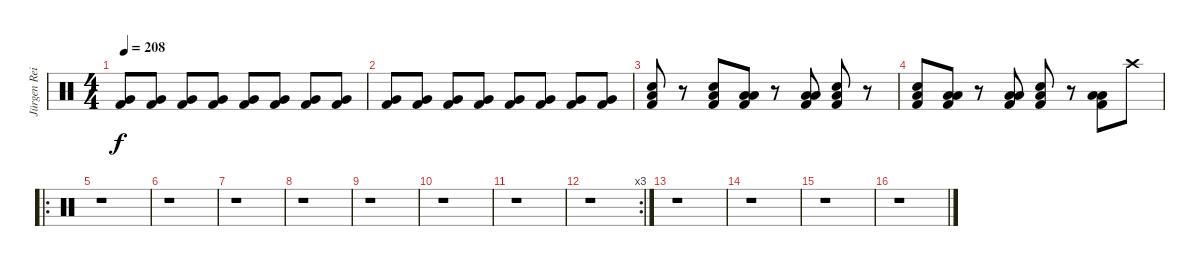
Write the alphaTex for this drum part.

\track ("Jürgen Reil" "Jürgen Rei") {instrument percussion}
\staff {score}
\articulation defaults
\ts (4 4)
\tempo 208
\clef neutral
\ks c
("Kick (hit) 2" "Very Low Tom (hit)").8{dy f} ("Kick (hit) 2" "Very Low Tom (hit)").8 ("Kick (hit) 2" "Very Low Tom (hit)").8 ("Kick (hit) 2" "Very Low Tom (hit)").8 ("Kick (hit) 2" "Very Low Tom (hit)").8 ("Kick (hit) 2" "Very Low Tom (hit)").8 ("Kick (hit) 2" "Very Low Tom (hit)").8 ("Kick (hit) 2" "Very Low Tom (hit)").8 |
("Kick (hit) 2" "Very Low Tom (hit)").8 ("Kick (hit) 2" "Very Low Tom (hit)").8 ("Kick (hit) 2" "Very Low Tom (hit)").8 ("Kick (hit) 2" "Very Low Tom (hit)").8 ("Kick (hit) 2" "Very Low Tom (hit)").8 ("Kick (hit) 2" "Very Low Tom (hit)").8 ("Kick (hit) 2" "Very Low Tom (hit)").8 ("Kick (hit) 2" "Very Low Tom (hit)").8 |
("Low Tom (hit)" "Kick (hit) 2" "Electric Snare (hit)").8 r.8 ("Low Tom (hit)" "Kick (hit) 2" "Electric Snare (hit)").8 ("Low Tom (hit)" "Kick (hit) 2" "Low Floor Tom (hit)").8 r.8 ("Low Tom (hit)" "Kick (hit) 2" "Low Floor Tom (hit)").8 ("Low Tom (hit)" "Kick (hit) 2" "Electric Snare (hit)").8 r.8 |
("Low Tom (hit)" "Kick (hit) 2" "Electric Snare (hit)").8 ("Low Tom (hit)" "Kick (hit) 2" "Low Floor Tom (hit)").8 r.8 ("Low Tom (hit)" "Kick (hit) 2" "Low Floor Tom (hit)").8 ("Low Tom (hit)" "Kick (hit) 2" "Electric Snare (hit)").8 r.8 ("Low Tom (hit)" "Kick (hit) 2" "Low Floor Tom (hit)").8 "Crash high (hit)".8 |
\ro
r.1 |
r.1 |
r.1 |
r.1 |
r.1 |
r.1 |
r.1 |
\rc 3
r.1 |
r.1 |
r.1 |
r.1 |
r.1
